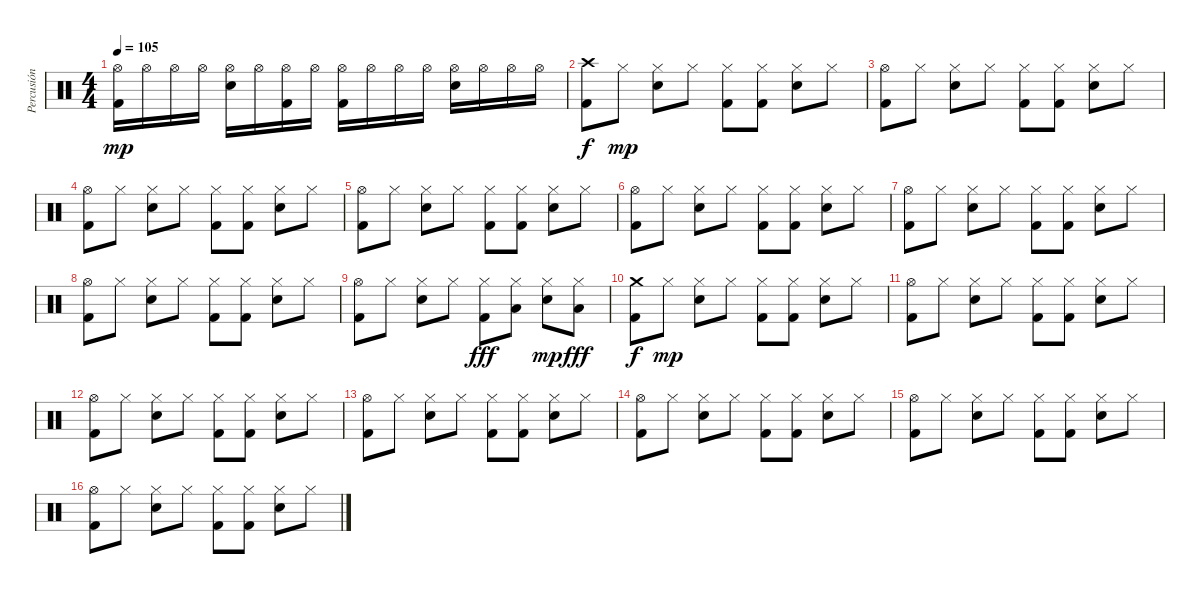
\track ("Percusión" "Percusión") {instrument percussion}
\staff {score}
\articulation defaults
\ts (4 4)
\tempo 105
\clef neutral
\ks c
("Hi-Hat (open)" "Kick (hit) 2").16{dy mp} "Hi-Hat (open)".16 "Hi-Hat (open)".16 "Hi-Hat (open)".16 ("Hi-Hat (open)" "Snare (hit) 2").16 "Hi-Hat (open)".16 ("Hi-Hat (open)" "Kick (hit) 2").16 "Hi-Hat (open)".16 ("Hi-Hat (open)" "Kick (hit) 2").16 "Hi-Hat (open)".16 "Hi-Hat (open)".16 "Hi-Hat (open)".16 ("Hi-Hat (open)" "Snare (hit) 2").16 "Hi-Hat (open)".16 "Hi-Hat (open)".16 "Hi-Hat (open)".16 |
("Crash high (hit)" "Kick (hit) 2").8{dy f} "Hi-Hat (closed)".8{dy mp} ("Hi-Hat (closed)" "Snare (hit) 2").8 "Hi-Hat (closed)".8 ("Hi-Hat (closed)" "Kick (hit) 2").8 ("Hi-Hat (closed)" "Kick (hit) 2").8 ("Hi-Hat (closed)" "Snare (hit) 2").8 "Hi-Hat (closed)".8 |
("Hi-Hat (open)" "Kick (hit) 2").8 "Hi-Hat (closed)".8 ("Hi-Hat (closed)" "Snare (hit) 2").8 "Hi-Hat (closed)".8 ("Hi-Hat (closed)" "Kick (hit) 2").8 ("Hi-Hat (closed)" "Kick (hit) 2").8 ("Hi-Hat (closed)" "Snare (hit) 2").8 "Hi-Hat (closed)".8 |
("Hi-Hat (open)" "Kick (hit) 2").8 "Hi-Hat (closed)".8 ("Hi-Hat (closed)" "Snare (hit) 2").8 "Hi-Hat (closed)".8 ("Hi-Hat (closed)" "Kick (hit) 2").8 ("Hi-Hat (closed)" "Kick (hit) 2").8 ("Hi-Hat (closed)" "Snare (hit) 2").8 "Hi-Hat (closed)".8 |
("Hi-Hat (open)" "Kick (hit) 2").8 "Hi-Hat (closed)".8 ("Hi-Hat (closed)" "Snare (hit) 2").8 "Hi-Hat (closed)".8 ("Hi-Hat (closed)" "Kick (hit) 2").8 ("Hi-Hat (closed)" "Kick (hit) 2").8 ("Hi-Hat (closed)" "Snare (hit) 2").8 "Hi-Hat (closed)".8 |
("Hi-Hat (open)" "Kick (hit) 2").8 "Hi-Hat (closed)".8 ("Hi-Hat (closed)" "Snare (hit) 2").8 "Hi-Hat (closed)".8 ("Hi-Hat (closed)" "Kick (hit) 2").8 ("Hi-Hat (closed)" "Kick (hit) 2").8 ("Hi-Hat (closed)" "Snare (hit) 2").8 "Hi-Hat (closed)".8 |
("Hi-Hat (open)" "Kick (hit) 2").8 "Hi-Hat (closed)".8 ("Hi-Hat (closed)" "Snare (hit) 2").8 "Hi-Hat (closed)".8 ("Hi-Hat (closed)" "Kick (hit) 2").8 ("Hi-Hat (closed)" "Kick (hit) 2").8 ("Hi-Hat (closed)" "Snare (hit) 2").8 "Hi-Hat (closed)".8 |
("Hi-Hat (open)" "Kick (hit) 2").8 "Hi-Hat (closed)".8 ("Hi-Hat (closed)" "Snare (hit) 2").8 "Hi-Hat (closed)".8 ("Hi-Hat (closed)" "Kick (hit) 2").8 ("Hi-Hat (closed)" "Kick (hit) 2").8 ("Hi-Hat (closed)" "Snare (hit) 2").8 "Hi-Hat (closed)".8 |
("Hi-Hat (open)" "Kick (hit) 2").8 "Hi-Hat (closed)".8 ("Hi-Hat (closed)" "Snare (hit) 2").8 "Hi-Hat (closed)".8 ("Hi-Hat (closed)" "Kick (hit) 2").8{dy fff} ("Hi-Hat (closed)" "Low Floor Tom (hit)").8 ("Hi-Hat (closed)" "Snare (hit) 2").8{dy mp} ("Hi-Hat (closed)" "Low Tom (hit)").8{dy fff} |
("Crash medium (hit)" "Kick (hit) 2").8{dy f} "Hi-Hat (closed)".8{dy mp} ("Hi-Hat (closed)" "Snare (hit) 2").8 "Hi-Hat (closed)".8 ("Hi-Hat (closed)" "Kick (hit) 2").8 ("Hi-Hat (closed)" "Kick (hit) 2").8 ("Hi-Hat (closed)" "Snare (hit) 2").8 "Hi-Hat (closed)".8 |
("Hi-Hat (open)" "Kick (hit) 2").8 "Hi-Hat (closed)".8 ("Hi-Hat (closed)" "Snare (hit) 2").8 "Hi-Hat (closed)".8 ("Hi-Hat (closed)" "Kick (hit) 2").8 ("Hi-Hat (closed)" "Kick (hit) 2").8 ("Hi-Hat (closed)" "Snare (hit) 2").8 "Hi-Hat (closed)".8 |
("Hi-Hat (open)" "Kick (hit) 2").8 "Hi-Hat (closed)".8 ("Hi-Hat (closed)" "Snare (hit) 2").8 "Hi-Hat (closed)".8 ("Hi-Hat (closed)" "Kick (hit) 2").8 ("Hi-Hat (closed)" "Kick (hit) 2").8 ("Hi-Hat (closed)" "Snare (hit) 2").8 "Hi-Hat (closed)".8 |
("Hi-Hat (open)" "Kick (hit) 2").8 "Hi-Hat (closed)".8 ("Hi-Hat (closed)" "Snare (hit) 2").8 "Hi-Hat (closed)".8 ("Hi-Hat (closed)" "Kick (hit) 2").8 ("Hi-Hat (closed)" "Kick (hit) 2").8 ("Hi-Hat (closed)" "Snare (hit) 2").8 "Hi-Hat (closed)".8 |
("Hi-Hat (open)" "Kick (hit) 2").8 "Hi-Hat (closed)".8 ("Hi-Hat (closed)" "Snare (hit) 2").8 "Hi-Hat (closed)".8 ("Hi-Hat (closed)" "Kick (hit) 2").8 ("Hi-Hat (closed)" "Kick (hit) 2").8 ("Hi-Hat (closed)" "Snare (hit) 2").8 "Hi-Hat (closed)".8 |
("Hi-Hat (open)" "Kick (hit) 2").8 "Hi-Hat (closed)".8 ("Hi-Hat (closed)" "Snare (hit) 2").8 "Hi-Hat (closed)".8 ("Hi-Hat (closed)" "Kick (hit) 2").8 ("Hi-Hat (closed)" "Kick (hit) 2").8 ("Hi-Hat (closed)" "Snare (hit) 2").8 "Hi-Hat (closed)".8 |
("Hi-Hat (open)" "Kick (hit) 2").8 "Hi-Hat (closed)".8 ("Hi-Hat (closed)" "Snare (hit) 2").8 "Hi-Hat (closed)".8 ("Hi-Hat (closed)" "Kick (hit) 2").8 ("Hi-Hat (closed)" "Kick (hit) 2").8 ("Hi-Hat (closed)" "Snare (hit) 2").8 "Hi-Hat (closed)".8
